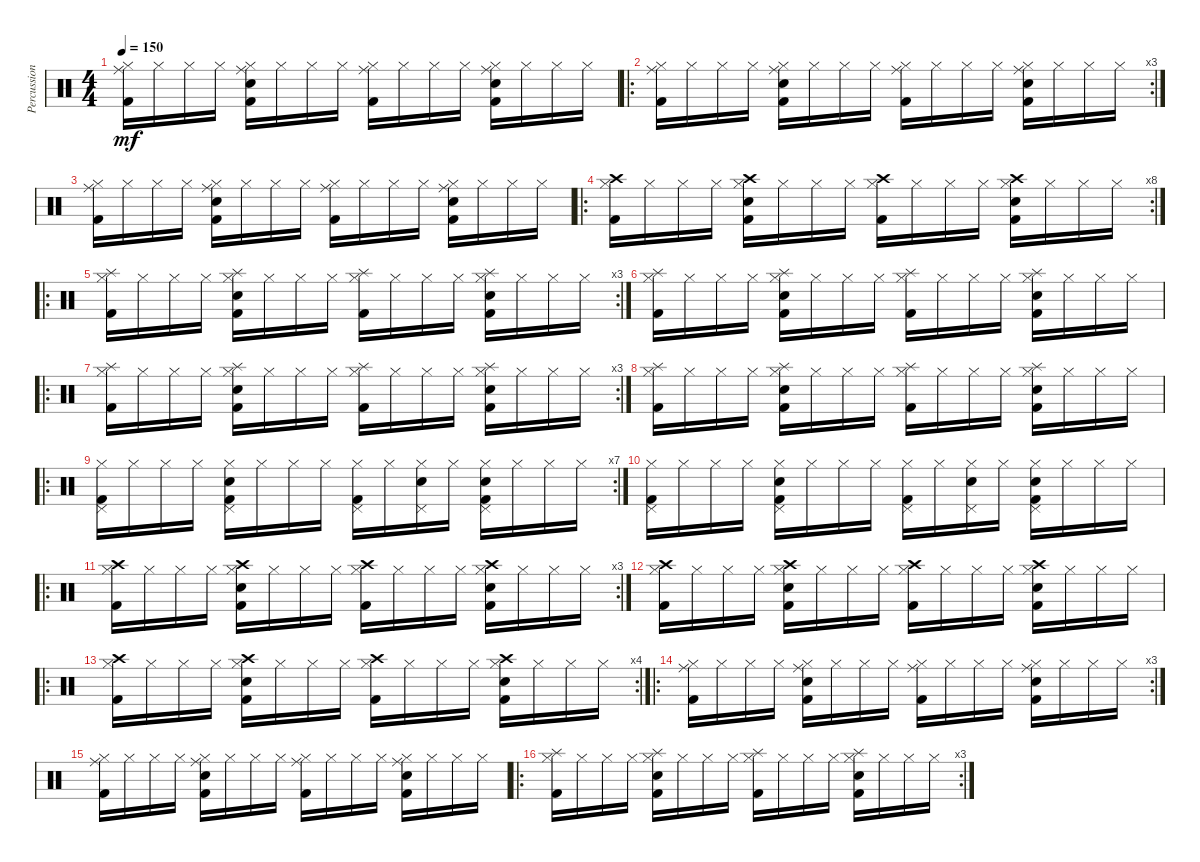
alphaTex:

\track ("Percussion" "Percussion") {instrument percussion}
\staff {score}
\articulation defaults
\ts (4 4)
\tempo 150
\clef neutral
\ks c
("Hi-Hat (closed)" "Ride (middle)" "Kick (hit) 2").16{dy mf} "Hi-Hat (closed)".16 "Hi-Hat (closed)".16 "Hi-Hat (closed)".16 ("Hi-Hat (closed)" "Ride (middle)" "Electric Snare (hit)" "Kick (hit) 2").16 "Hi-Hat (closed)".16 "Hi-Hat (closed)".16 "Hi-Hat (closed)".16 ("Hi-Hat (closed)" "Ride (middle)" "Kick (hit) 2").16 "Hi-Hat (closed)".16 "Hi-Hat (closed)".16 "Hi-Hat (closed)".16 ("Hi-Hat (closed)" "Ride (middle)" "Electric Snare (hit)" "Kick (hit) 2").16 "Hi-Hat (closed)".16 "Hi-Hat (closed)".16 "Hi-Hat (closed)".16 |
\ro
\rc 3
("Hi-Hat (closed)" "Ride (middle)" "Kick (hit) 2").16 "Hi-Hat (closed)".16 "Hi-Hat (closed)".16 "Hi-Hat (closed)".16 ("Hi-Hat (closed)" "Ride (middle)" "Electric Snare (hit)" "Kick (hit) 2").16 "Hi-Hat (closed)".16 "Hi-Hat (closed)".16 "Hi-Hat (closed)".16 ("Hi-Hat (closed)" "Ride (middle)" "Kick (hit) 2").16 "Hi-Hat (closed)".16 "Hi-Hat (closed)".16 "Hi-Hat (closed)".16 ("Hi-Hat (closed)" "Ride (middle)" "Electric Snare (hit)" "Kick (hit) 2").16 "Hi-Hat (closed)".16 "Hi-Hat (closed)".16 "Hi-Hat (closed)".16 |
("Hi-Hat (closed)" "Ride (middle)" "Kick (hit) 2").16 "Hi-Hat (closed)".16 "Hi-Hat (closed)".16 "Hi-Hat (closed)".16 ("Hi-Hat (closed)" "Ride (middle)" "Electric Snare (hit)" "Kick (hit) 2").16 "Hi-Hat (closed)".16 "Hi-Hat (closed)".16 "Hi-Hat (closed)".16 ("Hi-Hat (closed)" "Ride (middle)" "Kick (hit) 2").16 "Hi-Hat (closed)".16 "Hi-Hat (closed)".16 "Hi-Hat (closed)".16 ("Hi-Hat (closed)" "Ride (middle)" "Electric Snare (hit)" "Kick (hit) 2").16 "Hi-Hat (closed)".16 "Hi-Hat (closed)".16 "Hi-Hat (closed)".16 |
\ro
\rc 8
("Hi-Hat (closed)" "Crash high (hit)" "Kick (hit) 2").16 "Hi-Hat (closed)".16 "Hi-Hat (closed)".16 "Hi-Hat (closed)".16 ("Hi-Hat (closed)" "Crash high (hit)" "Electric Snare (hit)" "Kick (hit) 2").16 "Hi-Hat (closed)".16 "Hi-Hat (closed)".16 "Hi-Hat (closed)".16 ("Hi-Hat (closed)" "Crash high (hit)" "Kick (hit) 2").16 "Hi-Hat (closed)".16 "Hi-Hat (closed)".16 "Hi-Hat (closed)".16 ("Hi-Hat (closed)" "Crash high (hit)" "Electric Snare (hit)" "Kick (hit) 2").16 "Hi-Hat (closed)".16 "Hi-Hat (closed)".16 "Hi-Hat (closed)".16 |
\ro
\rc 3
("Hi-Hat (closed)" "Splash (hit)" "Kick (hit) 2").16 "Hi-Hat (closed)".16 "Hi-Hat (closed)".16 "Hi-Hat (closed)".16 ("Hi-Hat (closed)" "Splash (hit)" "Electric Snare (hit)" "Kick (hit) 2").16 "Hi-Hat (closed)".16 "Hi-Hat (closed)".16 "Hi-Hat (closed)".16 ("Hi-Hat (closed)" "Splash (hit)" "Kick (hit) 2").16 "Hi-Hat (closed)".16 "Hi-Hat (closed)".16 "Hi-Hat (closed)".16 ("Hi-Hat (closed)" "Splash (hit)" "Electric Snare (hit)" "Kick (hit) 2").16 "Hi-Hat (closed)".16 "Hi-Hat (closed)".16 "Hi-Hat (closed)".16 |
("Hi-Hat (closed)" "Splash (hit)" "Kick (hit) 2").16 "Hi-Hat (closed)".16 "Hi-Hat (closed)".16 "Hi-Hat (closed)".16 ("Hi-Hat (closed)" "Splash (hit)" "Electric Snare (hit)" "Kick (hit) 2").16 "Hi-Hat (closed)".16 "Hi-Hat (closed)".16 "Hi-Hat (closed)".16 ("Hi-Hat (closed)" "Splash (hit)" "Kick (hit) 2").16 "Hi-Hat (closed)".16 "Hi-Hat (closed)".16 "Hi-Hat (closed)".16 ("Hi-Hat (closed)" "Splash (hit)" "Electric Snare (hit)" "Kick (hit) 2").16 "Hi-Hat (closed)".16 "Hi-Hat (closed)".16 "Hi-Hat (closed)".16 |
\ro
\rc 3
("Hi-Hat (closed)" "Splash (hit)" "Kick (hit) 2").16 "Hi-Hat (closed)".16 "Hi-Hat (closed)".16 "Hi-Hat (closed)".16 ("Hi-Hat (closed)" "Splash (hit)" "Electric Snare (hit)" "Kick (hit) 2").16 "Hi-Hat (closed)".16 "Hi-Hat (closed)".16 "Hi-Hat (closed)".16 ("Hi-Hat (closed)" "Splash (hit)" "Kick (hit) 2").16 "Hi-Hat (closed)".16 "Hi-Hat (closed)".16 "Hi-Hat (closed)".16 ("Hi-Hat (closed)" "Splash (hit)" "Electric Snare (hit)" "Kick (hit) 2").16 "Hi-Hat (closed)".16 "Hi-Hat (closed)".16 "Hi-Hat (closed)".16 |
("Hi-Hat (closed)" "Splash (hit)" "Kick (hit) 2").16 "Hi-Hat (closed)".16 "Hi-Hat (closed)".16 "Hi-Hat (closed)".16 ("Hi-Hat (closed)" "Splash (hit)" "Electric Snare (hit)" "Kick (hit) 2").16 "Hi-Hat (closed)".16 "Hi-Hat (closed)".16 "Hi-Hat (closed)".16 ("Hi-Hat (closed)" "Splash (hit)" "Kick (hit) 2").16 "Hi-Hat (closed)".16 "Hi-Hat (closed)".16 "Hi-Hat (closed)".16 ("Hi-Hat (closed)" "Splash (hit)" "Electric Snare (hit)" "Kick (hit) 2").16 "Hi-Hat (closed)".16 "Hi-Hat (closed)".16 "Hi-Hat (closed)".16 |
\ro
\rc 7
("Hi-Hat (closed)" "Pedal Hi-Hat (hit)" "Kick (hit) 2").16 "Hi-Hat (closed)".16 "Hi-Hat (closed)".16 "Hi-Hat (closed)".16 ("Hi-Hat (closed)" "Pedal Hi-Hat (hit)" "Electric Snare (hit)" "Kick (hit) 2").16 "Hi-Hat (closed)".16 "Hi-Hat (closed)".16 "Hi-Hat (closed)".16 ("Hi-Hat (closed)" "Pedal Hi-Hat (hit)" "Kick (hit) 2").16 "Hi-Hat (closed)".16 ("Hi-Hat (closed)" "Pedal Hi-Hat (hit)" "Electric Snare (hit)").16 "Hi-Hat (closed)".16 ("Hi-Hat (closed)" "Pedal Hi-Hat (hit)" "Electric Snare (hit)" "Kick (hit) 2").16 "Hi-Hat (closed)".16 "Hi-Hat (closed)".16 "Hi-Hat (closed)".16 |
("Hi-Hat (closed)" "Pedal Hi-Hat (hit)" "Kick (hit) 2").16 "Hi-Hat (closed)".16 "Hi-Hat (closed)".16 "Hi-Hat (closed)".16 ("Hi-Hat (closed)" "Pedal Hi-Hat (hit)" "Electric Snare (hit)" "Kick (hit) 2").16 "Hi-Hat (closed)".16 "Hi-Hat (closed)".16 "Hi-Hat (closed)".16 ("Hi-Hat (closed)" "Pedal Hi-Hat (hit)" "Kick (hit) 2").16 "Hi-Hat (closed)".16 ("Hi-Hat (closed)" "Pedal Hi-Hat (hit)" "Electric Snare (hit)").16 "Hi-Hat (closed)".16 ("Hi-Hat (closed)" "Pedal Hi-Hat (hit)" "Electric Snare (hit)" "Kick (hit) 2").16 "Hi-Hat (closed)".16 "Hi-Hat (closed)".16 "Hi-Hat (closed)".16 |
\ro
\rc 3
("Hi-Hat (closed)" "Crash high (hit)" "Kick (hit) 2").16 "Hi-Hat (closed)".16 "Hi-Hat (closed)".16 "Hi-Hat (closed)".16 ("Hi-Hat (closed)" "Crash high (hit)" "Electric Snare (hit)" "Kick (hit) 2").16 "Hi-Hat (closed)".16 "Hi-Hat (closed)".16 "Hi-Hat (closed)".16 ("Hi-Hat (closed)" "Crash high (hit)" "Kick (hit) 2").16 "Hi-Hat (closed)".16 "Hi-Hat (closed)".16 "Hi-Hat (closed)".16 ("Hi-Hat (closed)" "Crash high (hit)" "Electric Snare (hit)" "Kick (hit) 2").16 "Hi-Hat (closed)".16 "Hi-Hat (closed)".16 "Hi-Hat (closed)".16 |
("Hi-Hat (closed)" "Crash high (hit)" "Kick (hit) 2").16 "Hi-Hat (closed)".16 "Hi-Hat (closed)".16 "Hi-Hat (closed)".16 ("Hi-Hat (closed)" "Crash high (hit)" "Electric Snare (hit)" "Kick (hit) 2").16 "Hi-Hat (closed)".16 "Hi-Hat (closed)".16 "Hi-Hat (closed)".16 ("Hi-Hat (closed)" "Crash high (hit)" "Kick (hit) 2").16 "Hi-Hat (closed)".16 "Hi-Hat (closed)".16 "Hi-Hat (closed)".16 ("Hi-Hat (closed)" "Crash high (hit)" "Electric Snare (hit)" "Kick (hit) 2").16 "Hi-Hat (closed)".16 "Hi-Hat (closed)".16 "Hi-Hat (closed)".16 |
\ro
\rc 4
("Hi-Hat (closed)" "Crash high (hit)" "Kick (hit) 2").16 "Hi-Hat (closed)".16 "Hi-Hat (closed)".16 "Hi-Hat (closed)".16 ("Hi-Hat (closed)" "Crash high (hit)" "Electric Snare (hit)" "Kick (hit) 2").16 "Hi-Hat (closed)".16 "Hi-Hat (closed)".16 "Hi-Hat (closed)".16 ("Hi-Hat (closed)" "Crash high (hit)" "Kick (hit) 2").16 "Hi-Hat (closed)".16 "Hi-Hat (closed)".16 "Hi-Hat (closed)".16 ("Hi-Hat (closed)" "Crash high (hit)" "Electric Snare (hit)" "Kick (hit) 2").16 "Hi-Hat (closed)".16 "Hi-Hat (closed)".16 "Hi-Hat (closed)".16 |
\ro
\rc 3
("Hi-Hat (closed)" "Ride (middle)" "Kick (hit) 2").16 "Hi-Hat (closed)".16 "Hi-Hat (closed)".16 "Hi-Hat (closed)".16 ("Hi-Hat (closed)" "Ride (middle)" "Electric Snare (hit)" "Kick (hit) 2").16 "Hi-Hat (closed)".16 "Hi-Hat (closed)".16 "Hi-Hat (closed)".16 ("Hi-Hat (closed)" "Ride (middle)" "Kick (hit) 2").16 "Hi-Hat (closed)".16 "Hi-Hat (closed)".16 "Hi-Hat (closed)".16 ("Hi-Hat (closed)" "Ride (middle)" "Electric Snare (hit)" "Kick (hit) 2").16 "Hi-Hat (closed)".16 "Hi-Hat (closed)".16 "Hi-Hat (closed)".16 |
("Hi-Hat (closed)" "Ride (middle)" "Kick (hit) 2").16 "Hi-Hat (closed)".16 "Hi-Hat (closed)".16 "Hi-Hat (closed)".16 ("Hi-Hat (closed)" "Ride (middle)" "Electric Snare (hit)" "Kick (hit) 2").16 "Hi-Hat (closed)".16 "Hi-Hat (closed)".16 "Hi-Hat (closed)".16 ("Hi-Hat (closed)" "Ride (middle)" "Kick (hit) 2").16 "Hi-Hat (closed)".16 "Hi-Hat (closed)".16 "Hi-Hat (closed)".16 ("Hi-Hat (closed)" "Ride (middle)" "Electric Snare (hit)" "Kick (hit) 2").16 "Hi-Hat (closed)".16 "Hi-Hat (closed)".16 "Hi-Hat (closed)".16 |
\ro
\rc 3
("Hi-Hat (closed)" "Splash (hit)" "Kick (hit) 2").16 "Hi-Hat (closed)".16 "Hi-Hat (closed)".16 "Hi-Hat (closed)".16 ("Hi-Hat (closed)" "Splash (hit)" "Electric Snare (hit)" "Kick (hit) 2").16 "Hi-Hat (closed)".16 "Hi-Hat (closed)".16 "Hi-Hat (closed)".16 ("Hi-Hat (closed)" "Splash (hit)" "Kick (hit) 2").16 "Hi-Hat (closed)".16 "Hi-Hat (closed)".16 "Hi-Hat (closed)".16 ("Hi-Hat (closed)" "Splash (hit)" "Electric Snare (hit)" "Kick (hit) 2").16 "Hi-Hat (closed)".16 "Hi-Hat (closed)".16 "Hi-Hat (closed)".16
